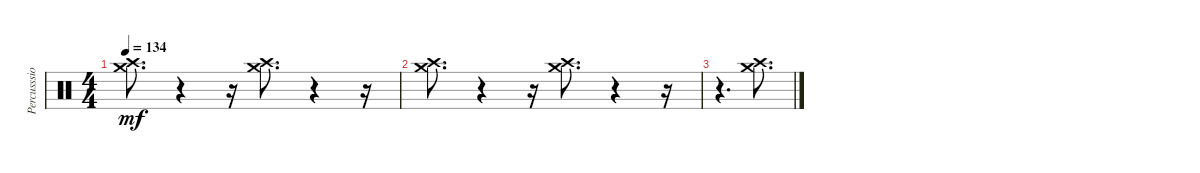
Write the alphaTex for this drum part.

\track ("Percusssion" "Percusssio") {instrument percussion}
\staff {score}
\articulation defaults
\ts (4 4)
\tempo 134
\clef neutral
\ks c
("Crash high (hit)" "Crash medium (hit)").8{d dy mf} r.4 r.16 ("Crash high (hit)" "Crash medium (hit)").8{d} r.4 r.16 |
("Crash high (hit)" "Crash medium (hit)").8{d} r.4 r.16 ("Crash high (hit)" "Crash medium (hit)").8{d} r.4 r.16 |
r.4{d} ("Crash high (hit)" "Crash medium (hit)").8{d}
